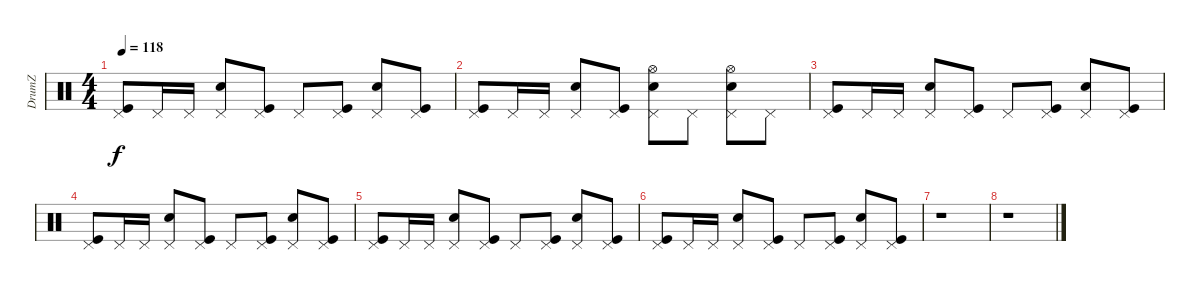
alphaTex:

\track ("DrumZ" "DrumZ") {instrument percussion}
\staff {score}
\articulation defaults
\ts (4 4)
\tempo 118
\clef neutral
\ks c
("Pedal Hi-Hat (hit)" "Kick (hit)").8{dy f} "Pedal Hi-Hat (hit)".16 "Pedal Hi-Hat (hit)".16 ("Pedal Hi-Hat (hit)" "Snare (hit) 2").8 ("Pedal Hi-Hat (hit)" "Kick (hit)").8 "Pedal Hi-Hat (hit)".8 ("Pedal Hi-Hat (hit)" "Kick (hit)").8 ("Pedal Hi-Hat (hit)" "Snare (hit) 2").8 ("Pedal Hi-Hat (hit)" "Kick (hit)").8 |
("Pedal Hi-Hat (hit)" "Kick (hit)").8 "Pedal Hi-Hat (hit)".16 "Pedal Hi-Hat (hit)".16 ("Pedal Hi-Hat (hit)" "Snare (hit) 2").8 ("Pedal Hi-Hat (hit)" "Kick (hit)").8 ("Hi-Hat (open)" "Pedal Hi-Hat (hit)" "Snare (hit) 2").8 "Pedal Hi-Hat (hit)".8 ("Hi-Hat (open)" "Pedal Hi-Hat (hit)" "Snare (hit) 2").8 "Pedal Hi-Hat (hit)".8 |
("Pedal Hi-Hat (hit)" "Kick (hit)").8 "Pedal Hi-Hat (hit)".16 "Pedal Hi-Hat (hit)".16 ("Pedal Hi-Hat (hit)" "Snare (hit) 2").8 ("Pedal Hi-Hat (hit)" "Kick (hit)").8 "Pedal Hi-Hat (hit)".8 ("Pedal Hi-Hat (hit)" "Kick (hit)").8 ("Pedal Hi-Hat (hit)" "Snare (hit) 2").8 ("Pedal Hi-Hat (hit)" "Kick (hit)").8 |
("Pedal Hi-Hat (hit)" "Kick (hit)").8 "Pedal Hi-Hat (hit)".16 "Pedal Hi-Hat (hit)".16 ("Pedal Hi-Hat (hit)" "Snare (hit) 2").8 ("Pedal Hi-Hat (hit)" "Kick (hit)").8 "Pedal Hi-Hat (hit)".8 ("Pedal Hi-Hat (hit)" "Kick (hit)").8 ("Pedal Hi-Hat (hit)" "Snare (hit) 2").8 ("Pedal Hi-Hat (hit)" "Kick (hit)").8 |
("Pedal Hi-Hat (hit)" "Kick (hit)").8 "Pedal Hi-Hat (hit)".16 "Pedal Hi-Hat (hit)".16 ("Pedal Hi-Hat (hit)" "Snare (hit) 2").8 ("Pedal Hi-Hat (hit)" "Kick (hit)").8 "Pedal Hi-Hat (hit)".8 ("Pedal Hi-Hat (hit)" "Kick (hit)").8 ("Pedal Hi-Hat (hit)" "Snare (hit) 2").8 ("Pedal Hi-Hat (hit)" "Kick (hit)").8 |
("Pedal Hi-Hat (hit)" "Kick (hit)").8 "Pedal Hi-Hat (hit)".16 "Pedal Hi-Hat (hit)".16 ("Pedal Hi-Hat (hit)" "Snare (hit) 2").8 ("Pedal Hi-Hat (hit)" "Kick (hit)").8 "Pedal Hi-Hat (hit)".8 ("Pedal Hi-Hat (hit)" "Kick (hit)").8 ("Pedal Hi-Hat (hit)" "Snare (hit) 2").8 ("Pedal Hi-Hat (hit)" "Kick (hit)").8 |
r.1 |
r.1
